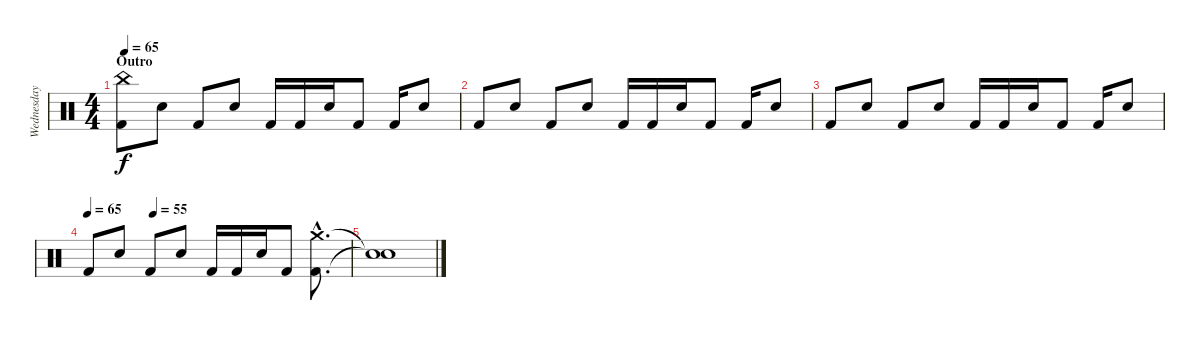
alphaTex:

\track ("Wednesday 13 - Drums" "Wednesday ") {instrument percussion}
\staff {score}
\articulation defaults
\ts (4 4)
\section ("" "Outro")
\tempo 65
\clef neutral
\ks c
("China (hit)" "Kick (hit) 2").8{dy f} "Electric Snare (hit)".8 "Kick (hit) 2".8 "Electric Snare (hit)".8 "Kick (hit) 2".16 "Kick (hit) 2".16 "Electric Snare (hit)".16 "Kick (hit) 2".8 "Kick (hit) 2".16 "Electric Snare (hit)".8 |
"Kick (hit) 2".8 "Electric Snare (hit)".8 "Kick (hit) 2".8 "Electric Snare (hit)".8 "Kick (hit) 2".16 "Kick (hit) 2".16 "Electric Snare (hit)".16 "Kick (hit) 2".8 "Kick (hit) 2".16 "Electric Snare (hit)".8 |
"Kick (hit) 2".8 "Electric Snare (hit)".8 "Kick (hit) 2".8 "Electric Snare (hit)".8 "Kick (hit) 2".16 "Kick (hit) 2".16 "Electric Snare (hit)".16 "Kick (hit) 2".8 "Kick (hit) 2".16 "Electric Snare (hit)".8 |
\tempo 65
\tempo (55 0.25)
"Kick (hit) 2".8 "Electric Snare (hit)".8 "Kick (hit) 2".8 "Electric Snare (hit)".8 "Kick (hit) 2".16 "Kick (hit) 2".16 "Electric Snare (hit)".16 "Kick (hit) 2".8 ("Crash medium (hit)"{hac} "Kick (hit) 2"{hac}).8{d} |
("Snare (hit)"{t} "Snare (hit)"{t}).1
